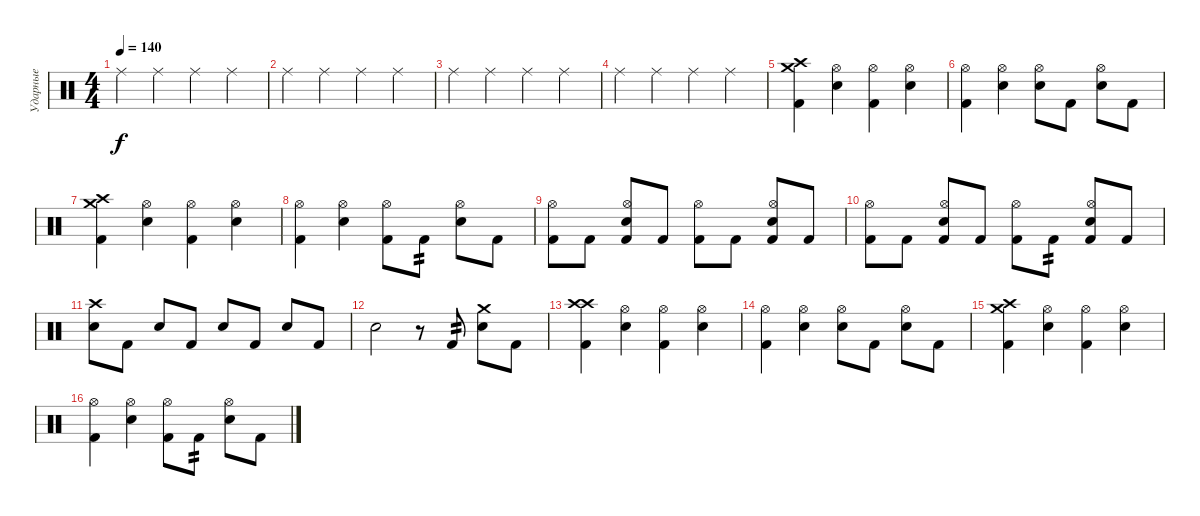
\track ("Ударные" "Ударные") {instrument percussion}
\staff {score}
\articulation defaults
\ts (4 4)
\tempo 140
\clef neutral
\ks c "Ride (middle)".4{dy f} "Ride (middle)".4 "Ride (middle)".4 "Ride (middle)".4
|
"Ride (middle)".4 "Ride (middle)".4 "Ride (middle)".4 "Ride (middle)".4 |
"Ride (middle)".4 "Ride (middle)".4 "Ride (middle)".4 "Ride (middle)".4 |
"Ride (middle)".4 "Ride (middle)".4 "Ride (middle)".4 "Ride (middle)".4 |
("Crash medium (hit)" "Crash high (hit)" "Kick (hit) 2").4 ("Hi-Hat (open)" "Electric Snare (hit)").4 ("Hi-Hat (open)" "Kick (hit) 2").4 ("Hi-Hat (open)" "Electric Snare (hit)").4 |
("Hi-Hat (open)" "Kick (hit) 2").4 ("Hi-Hat (open)" "Electric Snare (hit)").4 ("Hi-Hat (open)" "Electric Snare (hit)").8 "Kick (hit) 2".8 ("Hi-Hat (open)" "Electric Snare (hit)").8 "Kick (hit) 2".8 |
("Crash medium (hit)" "Crash high (hit)" "Kick (hit) 2").4 ("Hi-Hat (open)" "Electric Snare (hit)").4 ("Hi-Hat (open)" "Kick (hit) 2").4 ("Hi-Hat (open)" "Electric Snare (hit)").4 |
("Hi-Hat (open)" "Kick (hit) 2").4 ("Hi-Hat (open)" "Electric Snare (hit)").4 ("Hi-Hat (open)" "Kick (hit) 2").8 "Kick (hit) 2".8{tp 2} ("Hi-Hat (open)" "Electric Snare (hit)").8 "Kick (hit) 2".8 |
("Hi-Hat (open)" "Kick (hit) 2").8 "Kick (hit) 2".8 ("Hi-Hat (open)" "Electric Snare (hit)" "Kick (hit) 2").8 "Kick (hit) 2".8 ("Hi-Hat (open)" "Kick (hit) 2").8 "Kick (hit) 2".8 ("Hi-Hat (open)" "Electric Snare (hit)" "Kick (hit) 2").8 "Kick (hit) 2".8 |
("Hi-Hat (open)" "Kick (hit) 2").8 "Kick (hit) 2".8 ("Hi-Hat (open)" "Electric Snare (hit)" "Kick (hit) 2").8 "Kick (hit) 2".8 ("Hi-Hat (open)" "Kick (hit) 2").8 "Kick (hit) 2".8{tp 2} ("Hi-Hat (open)" "Electric Snare (hit)" "Kick (hit) 2").8 "Kick (hit) 2".8 |
("Crash high (hit)" "Electric Snare (hit)").8 "Kick (hit) 2".8 "Electric Snare (hit)".8 "Kick (hit) 2".8 "Electric Snare (hit)".8 "Kick (hit) 2".8 "Electric Snare (hit)".8 "Kick (hit) 2".8 |
"Electric Snare (hit)".2 r.8 "Kick (hit) 2".8{tp 2} ("Crash medium (hit)" "Electric Snare (hit)").8 "Kick (hit) 2".8 |
("Crash high (hit)" "Crash high (hit)" "Kick (hit) 2").4 ("Hi-Hat (open)" "Electric Snare (hit)").4 ("Hi-Hat (open)" "Kick (hit) 2").4 ("Hi-Hat (open)" "Electric Snare (hit)").4 |
("Hi-Hat (open)" "Kick (hit) 2").4 ("Hi-Hat (open)" "Electric Snare (hit)").4 ("Hi-Hat (open)" "Electric Snare (hit)").8 "Kick (hit) 2".8 ("Hi-Hat (open)" "Electric Snare (hit)").8 "Kick (hit) 2".8 |
("Crash medium (hit)" "Crash high (hit)" "Kick (hit) 2").4 ("Hi-Hat (open)" "Electric Snare (hit)").4 ("Hi-Hat (open)" "Kick (hit) 2").4 ("Hi-Hat (open)" "Electric Snare (hit)").4 |
("Hi-Hat (open)" "Kick (hit) 2").4 ("Hi-Hat (open)" "Electric Snare (hit)").4 ("Hi-Hat (open)" "Kick (hit) 2").8 "Kick (hit) 2".8{tp 2} ("Hi-Hat (open)" "Electric Snare (hit)").8 "Kick (hit) 2".8
